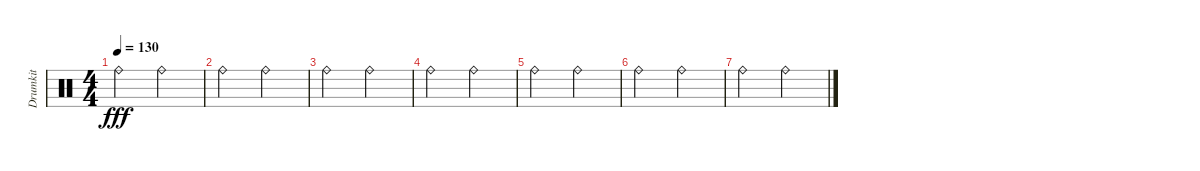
\track ("Drumkit" "Drumkit") {instrument percussion}
\staff {score}
\articulation defaults
\ts (4 4)
\tempo 130
\clef neutral
\ks c "Ride (bell)".2{dy fff} "Ride (bell)".2
|
"Ride (bell)".2 "Ride (bell)".2 |
"Ride (bell)".2 "Ride (bell)".2 |
"Ride (bell)".2 "Ride (bell)".2 |
"Ride (bell)".2 "Ride (bell)".2 |
"Ride (bell)".2 "Ride (bell)".2 |
"Ride (bell)".2 "Ride (bell)".2
